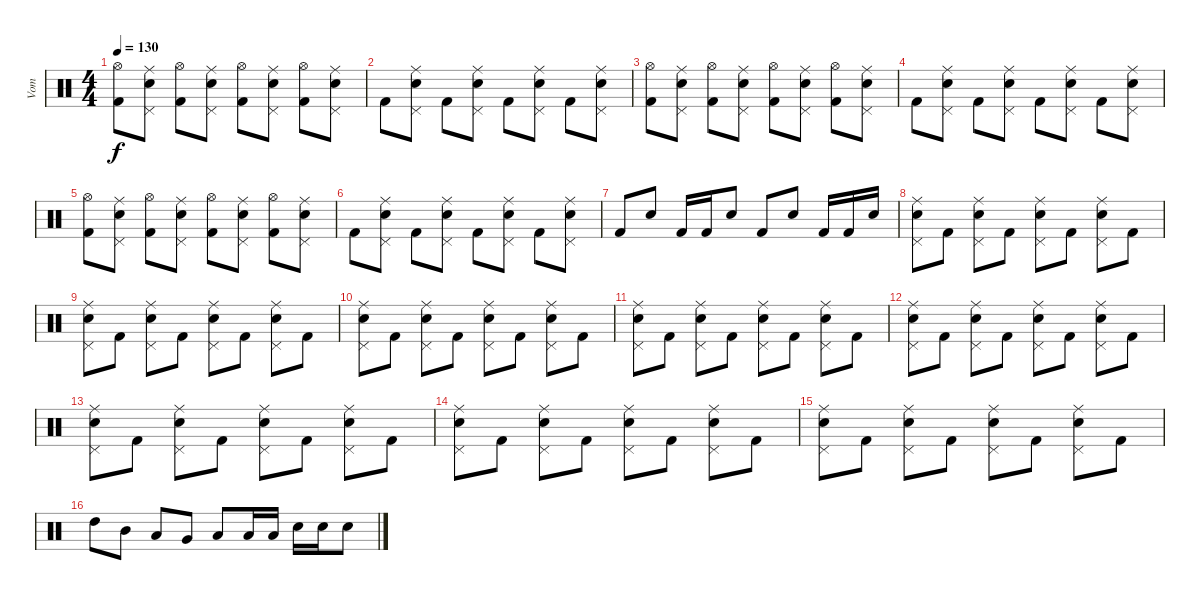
\track ("Vom" "Vom") {instrument percussion}
\staff {score}
\articulation defaults
\ts (4 4)
\tempo 130
\clef neutral
\ks c
("Kick (hit) 2" "Hi-Hat (open)").8{dy f} ("Snare (hit) 2" "Pedal Hi-Hat (hit)" "Ride (middle)").8 ("Kick (hit) 2" "Hi-Hat (open)").8 ("Snare (hit) 2" "Pedal Hi-Hat (hit)" "Ride (middle)").8 ("Kick (hit) 2" "Hi-Hat (open)").8 ("Snare (hit) 2" "Pedal Hi-Hat (hit)" "Ride (middle)").8 ("Kick (hit) 2" "Hi-Hat (open)").8 ("Snare (hit) 2" "Pedal Hi-Hat (hit)" "Ride (middle)").8 |
"Kick (hit) 2".8 ("Snare (hit) 2" "Pedal Hi-Hat (hit)" "Ride (middle)").8 "Kick (hit) 2".8 ("Snare (hit) 2" "Pedal Hi-Hat (hit)" "Ride (middle)").8 "Kick (hit) 2".8 ("Snare (hit) 2" "Pedal Hi-Hat (hit)" "Ride (middle)").8 "Kick (hit) 2".8 ("Snare (hit) 2" "Pedal Hi-Hat (hit)" "Ride (middle)").8 |
("Kick (hit) 2" "Hi-Hat (open)").8 ("Snare (hit) 2" "Pedal Hi-Hat (hit)" "Ride (middle)").8 ("Kick (hit) 2" "Hi-Hat (open)").8 ("Snare (hit) 2" "Pedal Hi-Hat (hit)" "Ride (middle)").8 ("Kick (hit) 2" "Hi-Hat (open)").8 ("Snare (hit) 2" "Pedal Hi-Hat (hit)" "Ride (middle)").8 ("Kick (hit) 2" "Hi-Hat (open)").8 ("Snare (hit) 2" "Pedal Hi-Hat (hit)" "Ride (middle)").8 |
"Kick (hit) 2".8 ("Snare (hit) 2" "Pedal Hi-Hat (hit)" "Ride (middle)").8 "Kick (hit) 2".8 ("Snare (hit) 2" "Pedal Hi-Hat (hit)" "Ride (middle)").8 "Kick (hit) 2".8 ("Snare (hit) 2" "Pedal Hi-Hat (hit)" "Ride (middle)").8 "Kick (hit) 2".8 ("Snare (hit) 2" "Pedal Hi-Hat (hit)" "Ride (middle)").8 |
("Kick (hit) 2" "Hi-Hat (open)").8 ("Snare (hit) 2" "Pedal Hi-Hat (hit)" "Ride (middle)").8 ("Kick (hit) 2" "Hi-Hat (open)").8 ("Snare (hit) 2" "Pedal Hi-Hat (hit)" "Ride (middle)").8 ("Kick (hit) 2" "Hi-Hat (open)").8 ("Snare (hit) 2" "Pedal Hi-Hat (hit)" "Ride (middle)").8 ("Kick (hit) 2" "Hi-Hat (open)").8 ("Snare (hit) 2" "Pedal Hi-Hat (hit)" "Ride (middle)").8 |
"Kick (hit) 2".8 ("Snare (hit) 2" "Pedal Hi-Hat (hit)" "Ride (middle)").8 "Kick (hit) 2".8 ("Snare (hit) 2" "Pedal Hi-Hat (hit)" "Ride (middle)").8 "Kick (hit) 2".8 ("Snare (hit) 2" "Pedal Hi-Hat (hit)" "Ride (middle)").8 "Kick (hit) 2".8 ("Snare (hit) 2" "Pedal Hi-Hat (hit)" "Ride (middle)").8 |
"Kick (hit) 2".8 "Snare (hit) 2".8 "Kick (hit) 2".16 "Kick (hit) 2".16 "Snare (hit) 2".8 "Kick (hit) 2".8 "Snare (hit) 2".8 "Kick (hit) 2".16 "Kick (hit) 2".16 "Snare (hit) 2".16 |
("Snare (hit) 2" "Ride (middle)" "Pedal Hi-Hat (hit)").8 "Kick (hit) 2".8 ("Snare (hit) 2" "Ride (middle)" "Pedal Hi-Hat (hit)").8 "Kick (hit) 2".8 ("Snare (hit) 2" "Ride (middle)" "Pedal Hi-Hat (hit)").8 "Kick (hit) 2".8 ("Snare (hit) 2" "Ride (middle)" "Pedal Hi-Hat (hit)").8 "Kick (hit) 2".8 |
("Snare (hit) 2" "Ride (middle)" "Pedal Hi-Hat (hit)").8 "Kick (hit) 2".8 ("Snare (hit) 2" "Ride (middle)" "Pedal Hi-Hat (hit)").8 "Kick (hit) 2".8 ("Snare (hit) 2" "Ride (middle)" "Pedal Hi-Hat (hit)").8 "Kick (hit) 2".8 ("Snare (hit) 2" "Ride (middle)" "Pedal Hi-Hat (hit)").8 "Kick (hit) 2".8 |
("Snare (hit) 2" "Ride (middle)" "Pedal Hi-Hat (hit)").8 "Kick (hit) 2".8 ("Snare (hit) 2" "Ride (middle)" "Pedal Hi-Hat (hit)").8 "Kick (hit) 2".8 ("Snare (hit) 2" "Ride (middle)" "Pedal Hi-Hat (hit)").8 "Kick (hit) 2".8 ("Snare (hit) 2" "Ride (middle)" "Pedal Hi-Hat (hit)").8 "Kick (hit) 2".8 |
("Snare (hit) 2" "Ride (middle)" "Pedal Hi-Hat (hit)").8 "Kick (hit) 2".8 ("Snare (hit) 2" "Ride (middle)" "Pedal Hi-Hat (hit)").8 "Kick (hit) 2".8 ("Snare (hit) 2" "Ride (middle)" "Pedal Hi-Hat (hit)").8 "Kick (hit) 2".8 ("Snare (hit) 2" "Ride (middle)" "Pedal Hi-Hat (hit)").8 "Kick (hit) 2".8 |
("Snare (hit) 2" "Ride (middle)" "Pedal Hi-Hat (hit)").8 "Kick (hit) 2".8 ("Snare (hit) 2" "Ride (middle)" "Pedal Hi-Hat (hit)").8 "Kick (hit) 2".8 ("Snare (hit) 2" "Ride (middle)" "Pedal Hi-Hat (hit)").8 "Kick (hit) 2".8 ("Snare (hit) 2" "Ride (middle)" "Pedal Hi-Hat (hit)").8 "Kick (hit) 2".8 |
("Snare (hit) 2" "Ride (middle)" "Pedal Hi-Hat (hit)").8 "Kick (hit) 2".8 ("Snare (hit) 2" "Ride (middle)" "Pedal Hi-Hat (hit)").8 "Kick (hit) 2".8 ("Snare (hit) 2" "Ride (middle)" "Pedal Hi-Hat (hit)").8 "Kick (hit) 2".8 ("Snare (hit) 2" "Ride (middle)" "Pedal Hi-Hat (hit)").8 "Kick (hit) 2".8 |
("Snare (hit) 2" "Ride (middle)" "Pedal Hi-Hat (hit)").8 "Kick (hit) 2".8 ("Snare (hit) 2" "Ride (middle)" "Pedal Hi-Hat (hit)").8 "Kick (hit) 2".8 ("Snare (hit) 2" "Ride (middle)" "Pedal Hi-Hat (hit)").8 "Kick (hit) 2".8 ("Snare (hit) 2" "Ride (middle)" "Pedal Hi-Hat (hit)").8 "Kick (hit) 2".8 |
("Snare (hit) 2" "Ride (middle)" "Pedal Hi-Hat (hit)").8 "Kick (hit) 2".8 ("Snare (hit) 2" "Ride (middle)" "Pedal Hi-Hat (hit)").8 "Kick (hit) 2".8 ("Snare (hit) 2" "Ride (middle)" "Pedal Hi-Hat (hit)").8 "Kick (hit) 2".8 ("Snare (hit) 2" "Ride (middle)" "Pedal Hi-Hat (hit)").8 "Kick (hit) 2".8 |
"High Tom (hit)".8 "Mid Tom (hit)".8 "Low Tom (hit)".8 "Very Low Tom (hit)".8 "Low Floor Tom (hit)".8 "Low Floor Tom (hit)".16 "Low Floor Tom (hit)".16 "Snare (hit) 2".16 "Snare (hit) 2".16 "Snare (hit) 2".8
